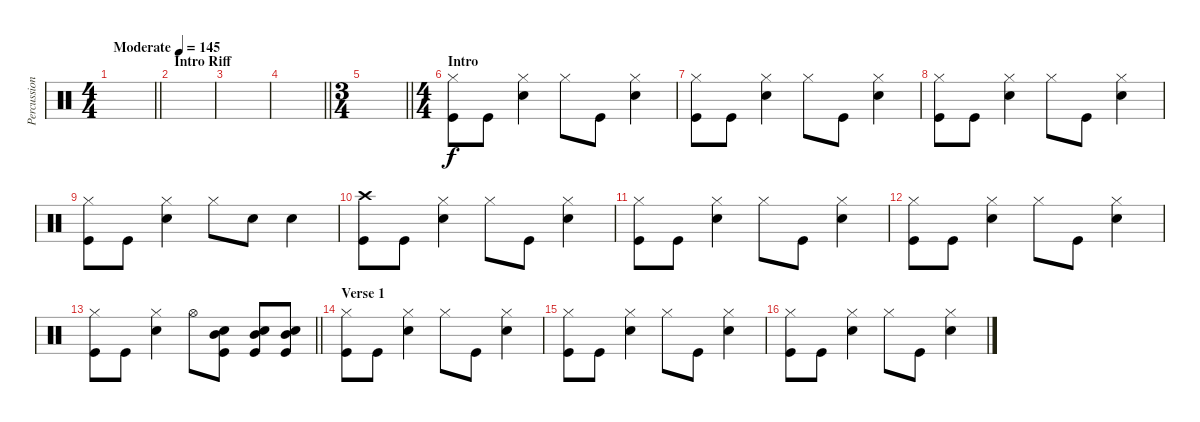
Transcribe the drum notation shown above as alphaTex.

\track ("Percussion" "Percussion") {instrument percussion}
\staff {score}
\articulation defaults
\ts (4 4)
\tempo (145 "Moderate")
\clef neutral
\barLineRight lightlight
\ks c
|
\section ("" "Intro Riff")
|
|
\barLineRight lightlight
|
\ts (3 4)
\barLineRight lightlight
|
\ts (4 4)
\section ("" "Intro")
("Kick (hit)" "Hi-Hat (closed)").8 "Kick (hit)".8 ("Hi-Hat (closed)" "Snare (hit) 2").4 "Hi-Hat (closed)".8 "Kick (hit)".8 ("Hi-Hat (closed)" "Snare (hit) 2").4 |
("Kick (hit)" "Hi-Hat (closed)").8 "Kick (hit)".8 ("Hi-Hat (closed)" "Snare (hit) 2").4 "Hi-Hat (closed)".8 "Kick (hit)".8 ("Hi-Hat (closed)" "Snare (hit) 2").4 |
("Kick (hit)" "Hi-Hat (closed)").8 "Kick (hit)".8 ("Hi-Hat (closed)" "Snare (hit) 2").4 "Hi-Hat (closed)".8 "Kick (hit)".8 ("Hi-Hat (closed)" "Snare (hit) 2").4 |
("Kick (hit)" "Hi-Hat (closed)").8 "Kick (hit)".8 ("Hi-Hat (closed)" "Snare (hit) 2").4 "Hi-Hat (closed)".8 "Snare (hit) 2".8 "Snare (hit) 2".4 |
("Kick (hit)" "Crash high (hit)").8 "Kick (hit)".8 ("Hi-Hat (closed)" "Snare (hit) 2").4 "Hi-Hat (closed)".8 "Kick (hit)".8 ("Hi-Hat (closed)" "Snare (hit) 2").4 |
("Kick (hit)" "Hi-Hat (closed)").8 "Kick (hit)".8 ("Hi-Hat (closed)" "Snare (hit) 2").4 "Hi-Hat (closed)".8 "Kick (hit)".8 ("Hi-Hat (closed)" "Snare (hit) 2").4 |
("Kick (hit)" "Hi-Hat (closed)").8 "Kick (hit)".8 ("Hi-Hat (closed)" "Snare (hit) 2").4 "Hi-Hat (closed)".8 "Kick (hit)".8 ("Hi-Hat (closed)" "Snare (hit) 2").4 |
\barLineRight lightlight
("Kick (hit)" "Hi-Hat (closed)").8 "Kick (hit)".8 ("Hi-Hat (closed)" "Snare (hit) 2").4 "Hi-Hat (open)".8 ("Kick (hit)" "Mid Tom (hit)" "Snare (hit) 2").8 ("Kick (hit)" "Mid Tom (hit)" "Snare (hit) 2").8 ("Kick (hit)" "Mid Tom (hit)" "Snare (hit) 2").8 |
\section ("" "Verse 1")
("Kick (hit)" "Hi-Hat (closed)").8 "Kick (hit)".8 ("Hi-Hat (closed)" "Snare (hit) 2").4 "Hi-Hat (closed)".8 "Kick (hit)".8 ("Hi-Hat (closed)" "Snare (hit) 2").4 |
("Kick (hit)" "Hi-Hat (closed)").8 "Kick (hit)".8 ("Hi-Hat (closed)" "Snare (hit) 2").4 "Hi-Hat (closed)".8 "Kick (hit)".8 ("Hi-Hat (closed)" "Snare (hit) 2").4 |
("Kick (hit)" "Hi-Hat (closed)").8 "Kick (hit)".8 ("Hi-Hat (closed)" "Snare (hit) 2").4 "Hi-Hat (closed)".8 "Kick (hit)".8 ("Hi-Hat (closed)" "Snare (hit) 2").4
